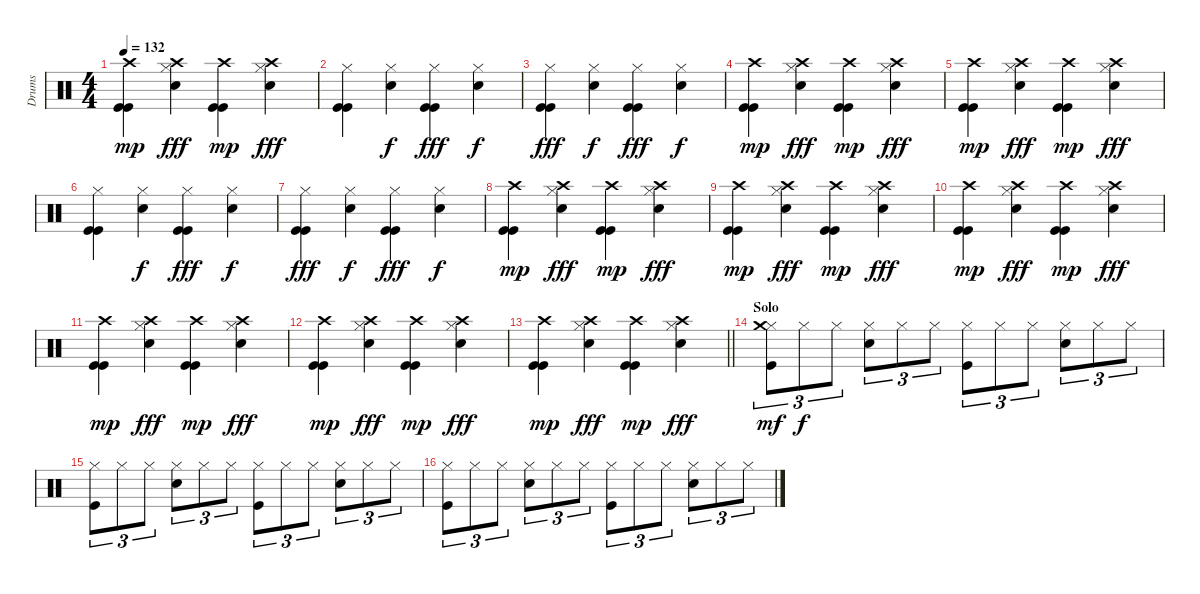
\track ("Drums" "Drums") {instrument percussion}
\staff {score}
\articulation defaults
\ts (4 4)
\tempo 132
\clef neutral
\ks c
("Kick (hit)" "Kick (hit)" "Crash high (hit)").4{dy mp} ("Hi-Hat (closed)" "Crash high (hit)" "Snare (hit) 2").4{dy fff} ("Kick (hit)" "Kick (hit)" "Crash high (hit)").4{dy mp} ("Hi-Hat (closed)" "Crash high (hit)" "Snare (hit) 2").4{dy fff} |
("Hi-Hat (closed)" "Kick (hit)" "Kick (hit)").4 ("Hi-Hat (closed)" "Snare (hit) 2").4{dy f} ("Hi-Hat (closed)" "Kick (hit)" "Kick (hit)").4{dy fff} ("Hi-Hat (closed)" "Snare (hit) 2").4{dy f} |
("Hi-Hat (closed)" "Kick (hit)" "Kick (hit)").4{dy fff} ("Hi-Hat (closed)" "Snare (hit) 2").4{dy f} ("Hi-Hat (closed)" "Kick (hit)" "Kick (hit)").4{dy fff} ("Hi-Hat (closed)" "Snare (hit) 2").4{dy f} |
("Kick (hit)" "Kick (hit)" "Crash high (hit)").4{dy mp} ("Hi-Hat (closed)" "Crash high (hit)" "Snare (hit) 2").4{dy fff} ("Kick (hit)" "Kick (hit)" "Crash high (hit)").4{dy mp} ("Hi-Hat (closed)" "Crash high (hit)" "Snare (hit) 2").4{dy fff} |
("Kick (hit)" "Kick (hit)" "Crash high (hit)").4{dy mp} ("Hi-Hat (closed)" "Crash high (hit)" "Snare (hit) 2").4{dy fff} ("Kick (hit)" "Kick (hit)" "Crash high (hit)").4{dy mp} ("Hi-Hat (closed)" "Crash high (hit)" "Snare (hit) 2").4{dy fff} |
("Hi-Hat (closed)" "Kick (hit)" "Kick (hit)").4 ("Hi-Hat (closed)" "Snare (hit) 2").4{dy f} ("Hi-Hat (closed)" "Kick (hit)" "Kick (hit)").4{dy fff} ("Hi-Hat (closed)" "Snare (hit) 2").4{dy f} |
("Hi-Hat (closed)" "Kick (hit)" "Kick (hit)").4{dy fff} ("Hi-Hat (closed)" "Snare (hit) 2").4{dy f} ("Hi-Hat (closed)" "Kick (hit)" "Kick (hit)").4{dy fff} ("Hi-Hat (closed)" "Snare (hit) 2").4{dy f} |
("Kick (hit)" "Kick (hit)" "Crash high (hit)").4{dy mp} ("Hi-Hat (closed)" "Crash high (hit)" "Snare (hit) 2").4{dy fff} ("Kick (hit)" "Kick (hit)" "Crash high (hit)").4{dy mp} ("Hi-Hat (closed)" "Crash high (hit)" "Snare (hit) 2").4{dy fff} |
("Kick (hit)" "Kick (hit)" "Crash high (hit)").4{dy mp} ("Hi-Hat (closed)" "Crash high (hit)" "Snare (hit) 2").4{dy fff} ("Kick (hit)" "Kick (hit)" "Crash high (hit)").4{dy mp} ("Hi-Hat (closed)" "Crash high (hit)" "Snare (hit) 2").4{dy fff} |
("Kick (hit)" "Kick (hit)" "Crash high (hit)").4{dy mp} ("Hi-Hat (closed)" "Crash high (hit)" "Snare (hit) 2").4{dy fff} ("Kick (hit)" "Kick (hit)" "Crash high (hit)").4{dy mp} ("Hi-Hat (closed)" "Crash high (hit)" "Snare (hit) 2").4{dy fff} |
("Kick (hit)" "Kick (hit)" "Crash high (hit)").4{dy mp} ("Hi-Hat (closed)" "Crash high (hit)" "Snare (hit) 2").4{dy fff} ("Kick (hit)" "Kick (hit)" "Crash high (hit)").4{dy mp} ("Hi-Hat (closed)" "Crash high (hit)" "Snare (hit) 2").4{dy fff} |
("Kick (hit)" "Kick (hit)" "Crash high (hit)").4{dy mp} ("Hi-Hat (closed)" "Crash high (hit)" "Snare (hit) 2").4{dy fff} ("Kick (hit)" "Kick (hit)" "Crash high (hit)").4{dy mp} ("Hi-Hat (closed)" "Crash high (hit)" "Snare (hit) 2").4{dy fff} |
\barLineRight lightlight
("Kick (hit)" "Kick (hit)" "Crash high (hit)").4{dy mp} ("Hi-Hat (closed)" "Crash high (hit)" "Snare (hit) 2").4{dy fff} ("Kick (hit)" "Kick (hit)" "Crash high (hit)").4{dy mp} ("Hi-Hat (closed)" "Crash high (hit)" "Snare (hit) 2").4{dy fff} |
\section ("" "Solo")
("Hi-Hat (closed)" "Kick (hit)" "Crash medium (hit)").8{tu (3 2) dy mf} "Hi-Hat (closed)".8{tu (3 2) dy f} "Hi-Hat (closed)".8{tu (3 2)} ("Hi-Hat (closed)" "Snare (hit) 2").8{tu (3 2)} "Hi-Hat (closed)".8{tu (3 2)} "Hi-Hat (closed)".8{tu (3 2)} ("Hi-Hat (closed)" "Kick (hit)").8{tu (3 2)} "Hi-Hat (closed)".8{tu (3 2)} "Hi-Hat (closed)".8{tu (3 2)} ("Hi-Hat (closed)" "Snare (hit) 2").8{tu (3 2)} "Hi-Hat (closed)".8{tu (3 2)} "Hi-Hat (closed)".8{tu (3 2)} |
("Hi-Hat (closed)" "Kick (hit)").8{tu (3 2)} "Hi-Hat (closed)".8{tu (3 2)} "Hi-Hat (closed)".8{tu (3 2)} ("Hi-Hat (closed)" "Snare (hit) 2").8{tu (3 2)} "Hi-Hat (closed)".8{tu (3 2)} "Hi-Hat (closed)".8{tu (3 2)} ("Hi-Hat (closed)" "Kick (hit)").8{tu (3 2)} "Hi-Hat (closed)".8{tu (3 2)} "Hi-Hat (closed)".8{tu (3 2)} ("Hi-Hat (closed)" "Snare (hit) 2").8{tu (3 2)} "Hi-Hat (closed)".8{tu (3 2)} "Hi-Hat (closed)".8{tu (3 2)} |
("Hi-Hat (closed)" "Kick (hit)").8{tu (3 2)} "Hi-Hat (closed)".8{tu (3 2)} "Hi-Hat (closed)".8{tu (3 2)} ("Hi-Hat (closed)" "Snare (hit) 2").8{tu (3 2)} "Hi-Hat (closed)".8{tu (3 2)} "Hi-Hat (closed)".8{tu (3 2)} ("Hi-Hat (closed)" "Kick (hit)").8{tu (3 2)} "Hi-Hat (closed)".8{tu (3 2)} "Hi-Hat (closed)".8{tu (3 2)} ("Hi-Hat (closed)" "Snare (hit) 2").8{tu (3 2)} "Hi-Hat (closed)".8{tu (3 2)} "Hi-Hat (closed)".8{tu (3 2)}
